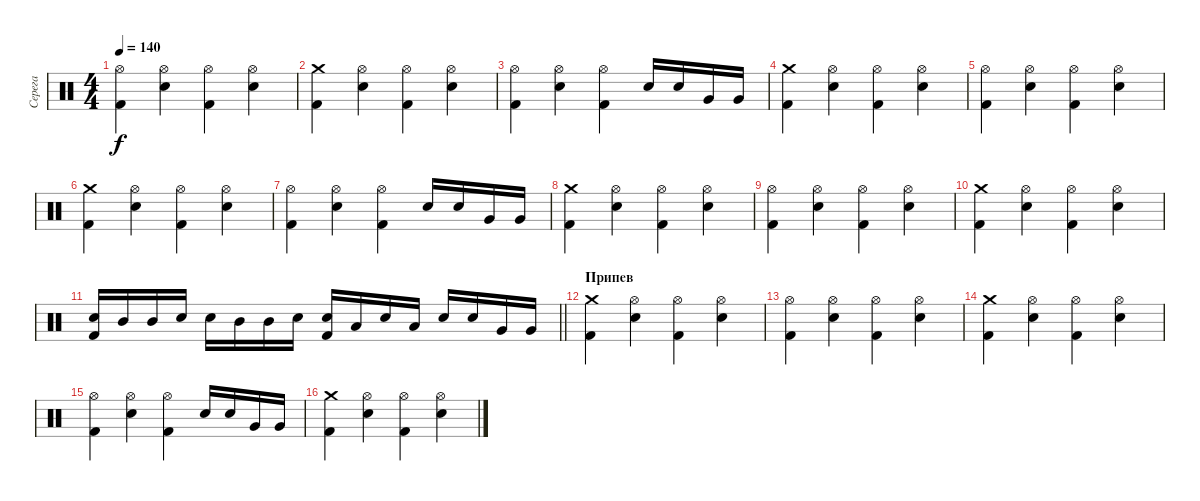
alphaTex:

\track ("Серега" "Серега") {instrument percussion}
\staff {score}
\articulation defaults
\ts (4 4)
\tempo 140
\clef neutral
\ks c
("Hi-Hat (open)" "Kick (hit) 2").4{dy f} ("Hi-Hat (open)" "Electric Snare (hit)").4 ("Hi-Hat (open)" "Kick (hit) 2").4 ("Hi-Hat (open)" "Electric Snare (hit)").4 |
("Crash medium (hit)" "Kick (hit) 2").4 ("Hi-Hat (open)" "Electric Snare (hit)").4 ("Hi-Hat (open)" "Kick (hit) 2").4 ("Hi-Hat (open)" "Electric Snare (hit)").4 |
("Hi-Hat (open)" "Kick (hit) 2").4 ("Hi-Hat (open)" "Electric Snare (hit)").4 ("Hi-Hat (open)" "Kick (hit) 2").4 "Electric Snare (hit)".16 "Electric Snare (hit)".16 "Very Low Tom (hit)".16 "Very Low Tom (hit)".16 |
("Crash medium (hit)" "Kick (hit) 2").4 ("Hi-Hat (open)" "Electric Snare (hit)").4 ("Hi-Hat (open)" "Kick (hit) 2").4 ("Hi-Hat (open)" "Electric Snare (hit)").4 |
("Hi-Hat (open)" "Kick (hit) 2").4 ("Hi-Hat (open)" "Electric Snare (hit)").4 ("Hi-Hat (open)" "Kick (hit) 2").4 ("Hi-Hat (open)" "Electric Snare (hit)").4 |
("Crash medium (hit)" "Kick (hit) 2").4 ("Hi-Hat (open)" "Electric Snare (hit)").4 ("Hi-Hat (open)" "Kick (hit) 2").4 ("Hi-Hat (open)" "Electric Snare (hit)").4 |
("Hi-Hat (open)" "Kick (hit) 2").4 ("Hi-Hat (open)" "Electric Snare (hit)").4 ("Hi-Hat (open)" "Kick (hit) 2").4 "Electric Snare (hit)".16 "Electric Snare (hit)".16 "Very Low Tom (hit)".16 "Very Low Tom (hit)".16 |
("Crash medium (hit)" "Kick (hit) 2").4 ("Hi-Hat (open)" "Electric Snare (hit)").4 ("Hi-Hat (open)" "Kick (hit) 2").4 ("Hi-Hat (open)" "Electric Snare (hit)").4 |
("Hi-Hat (open)" "Kick (hit) 2").4 ("Hi-Hat (open)" "Electric Snare (hit)").4 ("Hi-Hat (open)" "Kick (hit) 2").4 ("Hi-Hat (open)" "Electric Snare (hit)").4 |
("Crash medium (hit)" "Kick (hit) 2").4 ("Hi-Hat (open)" "Electric Snare (hit)").4 ("Hi-Hat (open)" "Kick (hit) 2").4 ("Hi-Hat (open)" "Electric Snare (hit)").4 |
\barLineRight lightlight
("Electric Snare (hit)" "Kick (hit) 2").16 "Mid Tom (hit)".16 "Mid Tom (hit)".16 "Electric Snare (hit)".16 "Electric Snare (hit)".16 "Mid Tom (hit)".16 "Mid Tom (hit)".16 "Electric Snare (hit)".16 ("Electric Snare (hit)" "Kick (hit) 2").16 "Low Tom (hit)".16 "Electric Snare (hit)".16 "Low Tom (hit)".16 "Electric Snare (hit)".16 "Electric Snare (hit)".16 "Very Low Tom (hit)".16 "Very Low Tom (hit)".16 |
\section ("" "Припев")
("Crash medium (hit)" "Kick (hit) 2").4 ("Hi-Hat (open)" "Electric Snare (hit)").4 ("Hi-Hat (open)" "Kick (hit) 2").4 ("Hi-Hat (open)" "Electric Snare (hit)").4 |
("Hi-Hat (open)" "Kick (hit) 2").4 ("Hi-Hat (open)" "Electric Snare (hit)").4 ("Hi-Hat (open)" "Kick (hit) 2").4 ("Hi-Hat (open)" "Electric Snare (hit)").4 |
("Crash medium (hit)" "Kick (hit) 2").4 ("Hi-Hat (open)" "Electric Snare (hit)").4 ("Hi-Hat (open)" "Kick (hit) 2").4 ("Hi-Hat (open)" "Electric Snare (hit)").4 |
("Hi-Hat (open)" "Kick (hit) 2").4 ("Hi-Hat (open)" "Electric Snare (hit)").4 ("Hi-Hat (open)" "Kick (hit) 2").4 "Electric Snare (hit)".16 "Electric Snare (hit)".16 "Very Low Tom (hit)".16 "Very Low Tom (hit)".16 |
("Crash medium (hit)" "Kick (hit) 2").4 ("Hi-Hat (open)" "Electric Snare (hit)").4 ("Hi-Hat (open)" "Kick (hit) 2").4 ("Hi-Hat (open)" "Electric Snare (hit)").4
